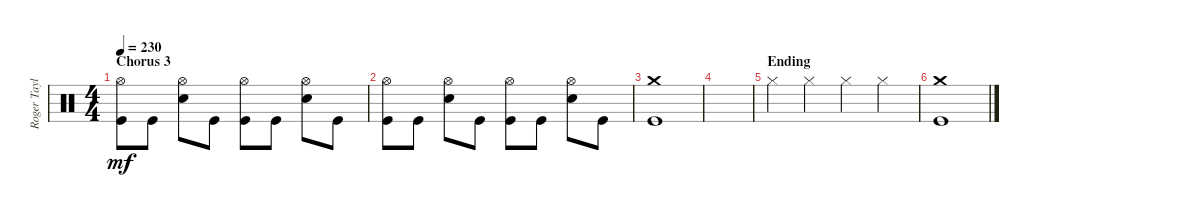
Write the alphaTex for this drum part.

\track ("Roger Taylor" "Roger Tayl") {instrument percussion}
\staff {score}
\articulation defaults
\ts (4 4)
\section ("" "Chorus 3")
\tempo 230
\clef neutral
\ks c
("Hi-Hat (open)" "Kick (hit)").8{dy mf} "Kick (hit)".8 ("Snare (hit) 2" "Hi-Hat (open)").8 "Kick (hit)".8 ("Kick (hit)" "Hi-Hat (open)").8 "Kick (hit)".8 ("Snare (hit) 2" "Hi-Hat (open)").8 "Kick (hit)".8 |
("Hi-Hat (open)" "Kick (hit)").8 "Kick (hit)".8 ("Snare (hit) 2" "Hi-Hat (open)").8 "Kick (hit)".8 ("Kick (hit)" "Hi-Hat (open)").8 "Kick (hit)".8 ("Snare (hit) 2" "Hi-Hat (open)").8 "Kick (hit)".8 |
("Crash medium (hit)" "Kick (hit)").1 |
|
\section ("" "Ending")
"Hi-Hat (closed)".4 "Hi-Hat (closed)".4 "Hi-Hat (closed)".4 "Hi-Hat (closed)".4 |
("Crash medium (hit)" "Kick (hit)").1
